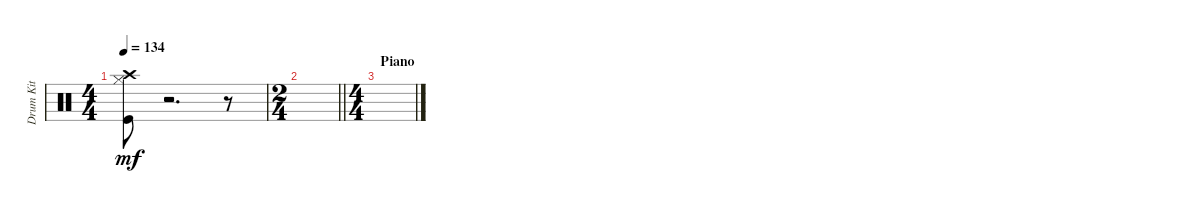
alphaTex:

\track ("Drum Kit" "Drum Kit") {instrument percussion}
\staff {score}
\articulation defaults
\ts (4 4)
\tempo 134
\clef neutral
\ks c
("Kick (hit)" "Hi-Hat (closed)" "Crash high (hit)").8{dy mf} r.2{d} r.8 |
\ts (2 4)
\barLineRight lightlight
|
\ts (4 4)
\section ("" "Piano")
